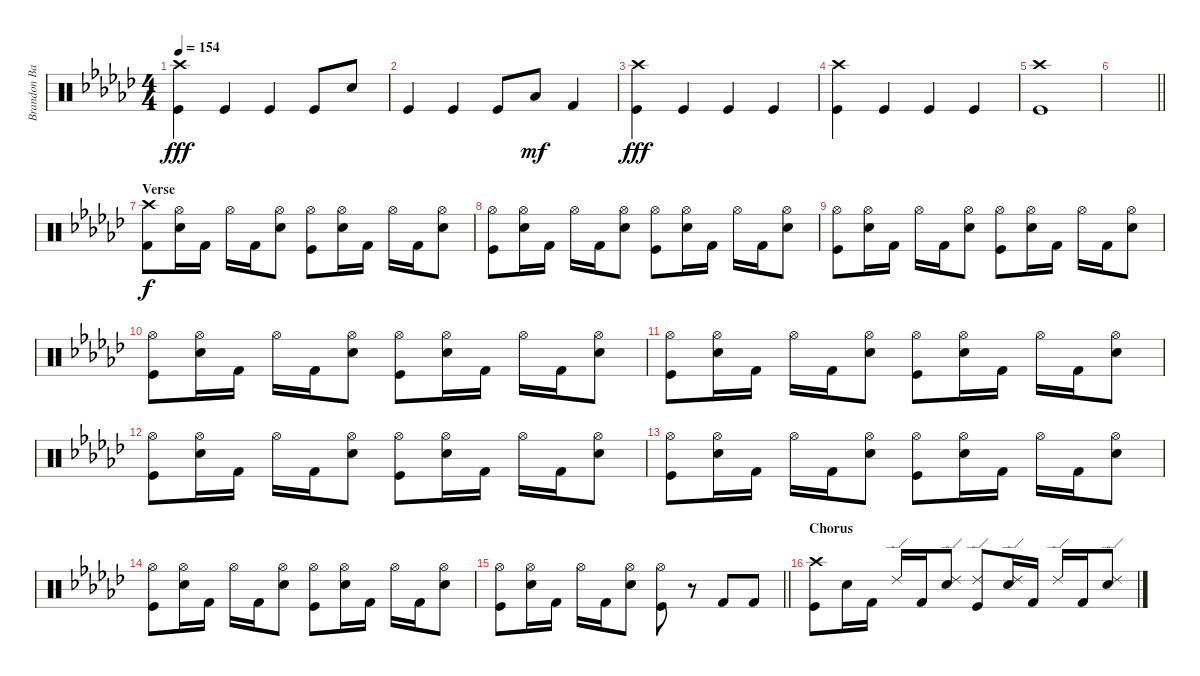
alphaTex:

\track ("Brandon Barnes - Drums" "Brandon Ba") {instrument percussion}
\staff {score}
\articulation defaults
\ts (4 4)
\tempo 154
\clef neutral
\ks gb
("Kick (hit)" "Crash high (hit)").4{dy fff} "Kick (hit)".4 "Kick (hit)".4 "Kick (hit)".8 "Snare (hit) 2".8 |
"Kick (hit)".4 "Kick (hit)".4 "Kick (hit)".8 "Low Tom (hit)".8{dy mf} "Kick (hit) 2".4 |
("Kick (hit)" "Crash high (hit)").4{dy fff} "Kick (hit)".4 "Kick (hit)".4 "Kick (hit)".4 |
("Kick (hit)" "Crash high (hit)").4 "Kick (hit)".4 "Kick (hit)".4 "Kick (hit)".4 |
("Kick (hit)" "Crash high (hit)").1 |
\barLineRight lightlight
|
\section ("" "Verse")
("Crash high (hit)" "Kick (hit) 2").8{dy f} ("Snare (hit) 2" "Hi-Hat (open)").16 "Kick (hit) 2".16 "Hi-Hat (open)".16 "Kick (hit) 2".16 ("Snare (hit) 2" "Hi-Hat (open)").8 ("Kick (hit)" "Hi-Hat (open)").8 ("Snare (hit) 2" "Hi-Hat (open)").16 "Kick (hit) 2".16 "Hi-Hat (open)".16 "Kick (hit) 2".16 ("Snare (hit) 2" "Hi-Hat (open)").8 |
("Kick (hit)" "Hi-Hat (open)").8 ("Snare (hit) 2" "Hi-Hat (open)").16 "Kick (hit) 2".16 "Hi-Hat (open)".16 "Kick (hit) 2".16 ("Snare (hit) 2" "Hi-Hat (open)").8 ("Kick (hit)" "Hi-Hat (open)").8 ("Snare (hit) 2" "Hi-Hat (open)").16 "Kick (hit) 2".16 "Hi-Hat (open)".16 "Kick (hit) 2".16 ("Snare (hit) 2" "Hi-Hat (open)").8 |
("Kick (hit)" "Hi-Hat (open)").8 ("Snare (hit) 2" "Hi-Hat (open)").16 "Kick (hit) 2".16 "Hi-Hat (open)".16 "Kick (hit) 2".16 ("Snare (hit) 2" "Hi-Hat (open)").8 ("Kick (hit)" "Hi-Hat (open)").8 ("Snare (hit) 2" "Hi-Hat (open)").16 "Kick (hit) 2".16 "Hi-Hat (open)".16 "Kick (hit) 2".16 ("Snare (hit) 2" "Hi-Hat (open)").8 |
("Kick (hit)" "Hi-Hat (open)").8 ("Snare (hit) 2" "Hi-Hat (open)").16 "Kick (hit) 2".16 "Hi-Hat (open)".16 "Kick (hit) 2".16 ("Snare (hit) 2" "Hi-Hat (open)").8 ("Kick (hit)" "Hi-Hat (open)").8 ("Snare (hit) 2" "Hi-Hat (open)").16 "Kick (hit) 2".16 "Hi-Hat (open)".16 "Kick (hit) 2".16 ("Snare (hit) 2" "Hi-Hat (open)").8 |
("Kick (hit)" "Hi-Hat (open)").8 ("Snare (hit) 2" "Hi-Hat (open)").16 "Kick (hit) 2".16 "Hi-Hat (open)".16 "Kick (hit) 2".16 ("Snare (hit) 2" "Hi-Hat (open)").8 ("Kick (hit)" "Hi-Hat (open)").8 ("Snare (hit) 2" "Hi-Hat (open)").16 "Kick (hit) 2".16 "Hi-Hat (open)".16 "Kick (hit) 2".16 ("Snare (hit) 2" "Hi-Hat (open)").8 |
("Kick (hit)" "Hi-Hat (open)").8 ("Snare (hit) 2" "Hi-Hat (open)").16 "Kick (hit) 2".16 "Hi-Hat (open)".16 "Kick (hit) 2".16 ("Snare (hit) 2" "Hi-Hat (open)").8 ("Kick (hit)" "Hi-Hat (open)").8 ("Snare (hit) 2" "Hi-Hat (open)").16 "Kick (hit) 2".16 "Hi-Hat (open)".16 "Kick (hit) 2".16 ("Snare (hit) 2" "Hi-Hat (open)").8 |
("Kick (hit)" "Hi-Hat (open)").8 ("Snare (hit) 2" "Hi-Hat (open)").16 "Kick (hit) 2".16 "Hi-Hat (open)".16 "Kick (hit) 2".16 ("Snare (hit) 2" "Hi-Hat (open)").8 ("Kick (hit)" "Hi-Hat (open)").8 ("Snare (hit) 2" "Hi-Hat (open)").16 "Kick (hit) 2".16 "Hi-Hat (open)".16 "Kick (hit) 2".16 ("Snare (hit) 2" "Hi-Hat (open)").8 |
("Kick (hit)" "Hi-Hat (open)").8 ("Snare (hit) 2" "Hi-Hat (open)").16 "Kick (hit) 2".16 "Hi-Hat (open)".16 "Kick (hit) 2".16 ("Snare (hit) 2" "Hi-Hat (open)").8 ("Kick (hit)" "Hi-Hat (open)").8 ("Snare (hit) 2" "Hi-Hat (open)").16 "Kick (hit) 2".16 "Hi-Hat (open)".16 "Kick (hit) 2".16 ("Snare (hit) 2" "Hi-Hat (open)").8 |
\barLineRight lightlight
("Kick (hit)" "Hi-Hat (open)").8 ("Snare (hit) 2" "Hi-Hat (open)").16 "Kick (hit) 2".16 "Hi-Hat (open)".16 "Kick (hit) 2".16 ("Snare (hit) 2" "Hi-Hat (open)").8 ("Kick (hit)" "Hi-Hat (open)").8 r.8 "Kick (hit) 2".8 "Kick (hit) 2".8 |
\section ("" "Chorus")
("Kick (hit)" "Crash high (hit)").8 "Snare (hit) 2".16 "Kick (hit) 2".16 "Ride (edge) 2".16 "Kick (hit) 2".16 ("Snare (hit) 2" "Ride (edge) 2").8 ("Kick (hit)" "Ride (edge) 2").8 ("Snare (hit) 2" "Ride (edge) 2").16 "Kick (hit) 2".16 "Ride (edge) 2".16 "Kick (hit) 2".16 ("Snare (hit) 2" "Ride (edge) 2").8
